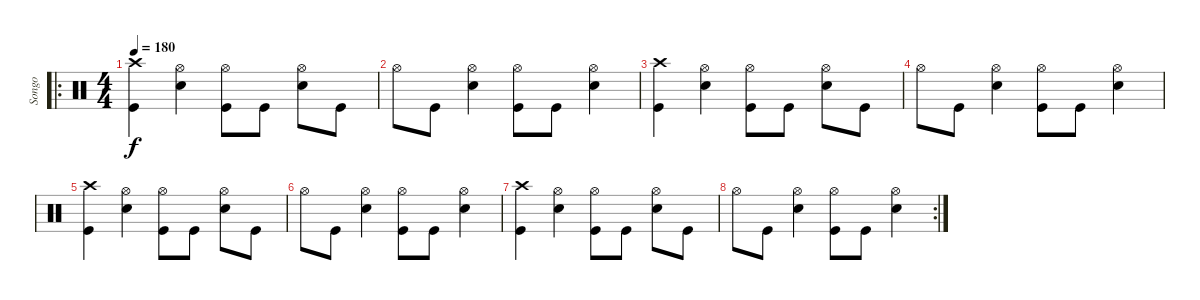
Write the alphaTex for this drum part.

\track ("Songo" "Songo") {instrument percussion}
\staff {score}
\articulation defaults
\ro
\ts (4 4)
\tempo 180
\clef neutral
\ks c
("Kick (hit)" "Crash high (hit)").4{dy f} ("Hi-Hat (open)" "Snare (hit) 2").4 ("Hi-Hat (open)" "Kick (hit)").8 "Kick (hit)".8 ("Hi-Hat (open)" "Snare (hit) 2").8 "Kick (hit)".8 |
"Hi-Hat (open)".8 "Kick (hit)".8 ("Hi-Hat (open)" "Snare (hit) 2").4 ("Hi-Hat (open)" "Kick (hit)").8 "Kick (hit)".8 ("Hi-Hat (open)" "Snare (hit) 2").4 |
("Kick (hit)" "Crash high (hit)").4 ("Hi-Hat (open)" "Snare (hit) 2").4 ("Hi-Hat (open)" "Kick (hit)").8 "Kick (hit)".8 ("Hi-Hat (open)" "Snare (hit) 2").8 "Kick (hit)".8 |
"Hi-Hat (open)".8 "Kick (hit)".8 ("Hi-Hat (open)" "Snare (hit) 2").4 ("Hi-Hat (open)" "Kick (hit)").8 "Kick (hit)".8 ("Hi-Hat (open)" "Snare (hit) 2").4 |
("Kick (hit)" "Crash high (hit)").4 ("Hi-Hat (open)" "Snare (hit) 2").4 ("Hi-Hat (open)" "Kick (hit)").8 "Kick (hit)".8 ("Hi-Hat (open)" "Snare (hit) 2").8 "Kick (hit)".8 |
"Hi-Hat (open)".8 "Kick (hit)".8 ("Hi-Hat (open)" "Snare (hit) 2").4 ("Hi-Hat (open)" "Kick (hit)").8 "Kick (hit)".8 ("Hi-Hat (open)" "Snare (hit) 2").4 |
("Kick (hit)" "Crash high (hit)").4 ("Hi-Hat (open)" "Snare (hit) 2").4 ("Hi-Hat (open)" "Kick (hit)").8 "Kick (hit)".8 ("Hi-Hat (open)" "Snare (hit) 2").8 "Kick (hit)".8 |
\rc 2 "Hi-Hat (open)".8 "Kick (hit)".8
("Hi-Hat (open)" "Snare (hit) 2").4 ("Hi-Hat (open)" "Kick (hit)").8 "Kick (hit)".8 ("Hi-Hat (open)" "Snare (hit) 2").4
